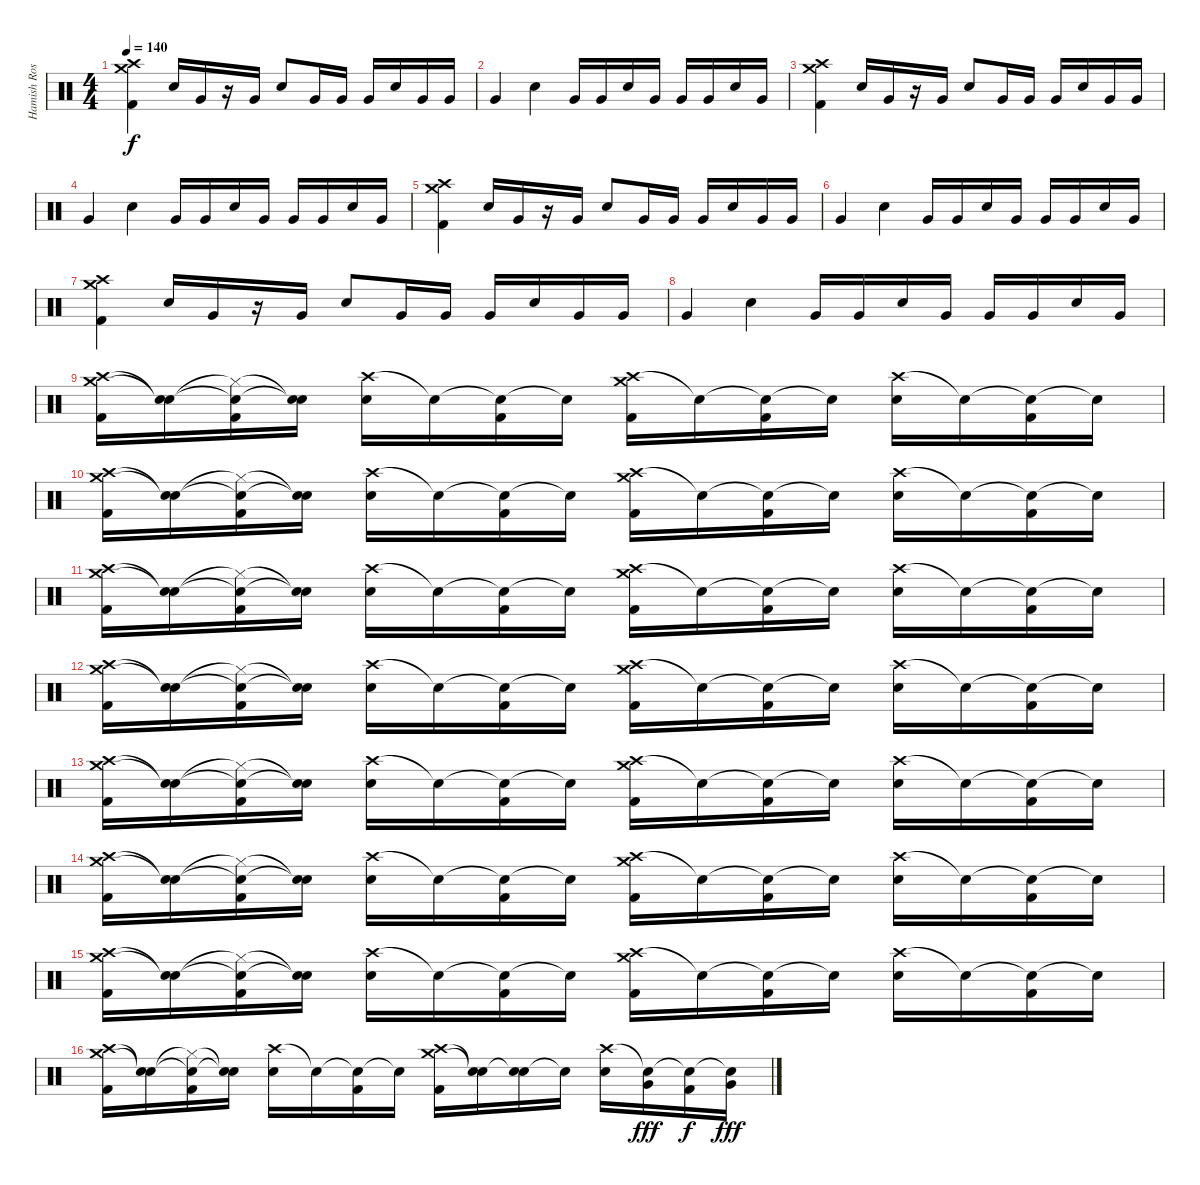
\track ("Hamish Rosser" "Hamish Ros") {instrument percussion}
\staff {score}
\articulation defaults
\ts (4 4)
\tempo 140
\clef neutral
\ks c
("Crash medium (hit)" "Crash high (hit)" "Kick (hit) 2").4{dy f} "Snare (hit) 2".16 "Very Low Tom (hit)".16 r.16 "Very Low Tom (hit)".16 "Snare (hit) 2".8 "Very Low Tom (hit)".16 "Very Low Tom (hit)".16 "Very Low Tom (hit)".16 "Snare (hit) 2".16 "Very Low Tom (hit)".16 "Very Low Tom (hit)".16 |
"Very Low Tom (hit)".4 "Snare (hit) 2".4 "Very Low Tom (hit)".16 "Very Low Tom (hit)".16 "Snare (hit) 2".16 "Very Low Tom (hit)".16 "Very Low Tom (hit)".16 "Very Low Tom (hit)".16 "Snare (hit) 2".16 "Very Low Tom (hit)".16 |
("Crash medium (hit)" "Crash high (hit)" "Kick (hit) 2").4 "Snare (hit) 2".16 "Very Low Tom (hit)".16 r.16 "Very Low Tom (hit)".16 "Snare (hit) 2".8 "Very Low Tom (hit)".16 "Very Low Tom (hit)".16 "Very Low Tom (hit)".16 "Snare (hit) 2".16 "Very Low Tom (hit)".16 "Very Low Tom (hit)".16 |
"Very Low Tom (hit)".4 "Snare (hit) 2".4 "Very Low Tom (hit)".16 "Very Low Tom (hit)".16 "Snare (hit) 2".16 "Very Low Tom (hit)".16 "Very Low Tom (hit)".16 "Very Low Tom (hit)".16 "Snare (hit) 2".16 "Very Low Tom (hit)".16 |
("Crash medium (hit)" "Crash high (hit)" "Kick (hit) 2").4 "Snare (hit) 2".16 "Very Low Tom (hit)".16 r.16 "Very Low Tom (hit)".16 "Snare (hit) 2".8 "Very Low Tom (hit)".16 "Very Low Tom (hit)".16 "Very Low Tom (hit)".16 "Snare (hit) 2".16 "Very Low Tom (hit)".16 "Very Low Tom (hit)".16 |
"Very Low Tom (hit)".4 "Snare (hit) 2".4 "Very Low Tom (hit)".16 "Very Low Tom (hit)".16 "Snare (hit) 2".16 "Very Low Tom (hit)".16 "Very Low Tom (hit)".16 "Very Low Tom (hit)".16 "Snare (hit) 2".16 "Very Low Tom (hit)".16 |
("Crash medium (hit)" "Crash high (hit)" "Kick (hit) 2").4 "Snare (hit) 2".16 "Very Low Tom (hit)".16 r.16 "Very Low Tom (hit)".16 "Snare (hit) 2".8 "Very Low Tom (hit)".16 "Very Low Tom (hit)".16 "Very Low Tom (hit)".16 "Snare (hit) 2".16 "Very Low Tom (hit)".16 "Very Low Tom (hit)".16 |
"Very Low Tom (hit)".4 "Snare (hit) 2".4 "Very Low Tom (hit)".16 "Very Low Tom (hit)".16 "Snare (hit) 2".16 "Very Low Tom (hit)".16 "Very Low Tom (hit)".16 "Very Low Tom (hit)".16 "Snare (hit) 2".16 "Very Low Tom (hit)".16 |
("Crash high (hit)" "Crash medium (hit)" "Kick (hit) 2").16 ("Snare (hit)"{t} "Snare (hit)"{t}).16 ("Snare (hit)"{t} "Hi-Hat (closed)"{t} "Kick (hit) 2").16 ("Snare (hit)"{t} "Snare (hit)"{t}).16 ("Crash high (hit)" "Electric Snare (hit)").16 "Snare (hit)"{t}.16 ("Snare (hit)"{t} "Kick (hit) 2").16 "Snare (hit)"{t}.16 ("Crash high (hit)" "Crash medium (hit)" "Kick (hit) 2").16 "Snare (hit)"{t}.16 ("Snare (hit)"{t} "Kick (hit) 2").16 "Snare (hit)"{t}.16 ("Crash high (hit)" "Electric Snare (hit)").16 "Snare (hit)"{t}.16 ("Snare (hit)"{t} "Kick (hit) 2").16 "Snare (hit)"{t}.16 |
("Crash high (hit)" "Crash medium (hit)" "Kick (hit) 2").16 ("Snare (hit)"{t} "Snare (hit)"{t}).16 ("Snare (hit)"{t} "Hi-Hat (closed)"{t} "Kick (hit) 2").16 ("Snare (hit)"{t} "Snare (hit)"{t}).16 ("Crash high (hit)" "Electric Snare (hit)").16 "Snare (hit)"{t}.16 ("Snare (hit)"{t} "Kick (hit) 2").16 "Snare (hit)"{t}.16 ("Crash high (hit)" "Crash medium (hit)" "Kick (hit) 2").16 "Snare (hit)"{t}.16 ("Snare (hit)"{t} "Kick (hit) 2").16 "Snare (hit)"{t}.16 ("Crash high (hit)" "Electric Snare (hit)").16 "Snare (hit)"{t}.16 ("Snare (hit)"{t} "Kick (hit) 2").16 "Snare (hit)"{t}.16 |
("Crash high (hit)" "Crash medium (hit)" "Kick (hit) 2").16 ("Snare (hit)"{t} "Snare (hit)"{t}).16 ("Snare (hit)"{t} "Hi-Hat (closed)"{t} "Kick (hit) 2").16 ("Snare (hit)"{t} "Snare (hit)"{t}).16 ("Crash high (hit)" "Electric Snare (hit)").16 "Snare (hit)"{t}.16 ("Snare (hit)"{t} "Kick (hit) 2").16 "Snare (hit)"{t}.16 ("Crash high (hit)" "Crash medium (hit)" "Kick (hit) 2").16 "Snare (hit)"{t}.16 ("Snare (hit)"{t} "Kick (hit) 2").16 "Snare (hit)"{t}.16 ("Crash high (hit)" "Electric Snare (hit)").16 "Snare (hit)"{t}.16 ("Snare (hit)"{t} "Kick (hit) 2").16 "Snare (hit)"{t}.16 |
("Crash high (hit)" "Crash medium (hit)" "Kick (hit) 2").16 ("Snare (hit)"{t} "Snare (hit)"{t}).16 ("Snare (hit)"{t} "Hi-Hat (closed)"{t} "Kick (hit) 2").16 ("Snare (hit)"{t} "Snare (hit)"{t}).16 ("Crash high (hit)" "Electric Snare (hit)").16 "Snare (hit)"{t}.16 ("Snare (hit)"{t} "Kick (hit) 2").16 "Snare (hit)"{t}.16 ("Crash high (hit)" "Crash medium (hit)" "Kick (hit) 2").16 "Snare (hit)"{t}.16 ("Snare (hit)"{t} "Kick (hit) 2").16 "Snare (hit)"{t}.16 ("Crash high (hit)" "Electric Snare (hit)").16 "Snare (hit)"{t}.16 ("Snare (hit)"{t} "Kick (hit) 2").16 "Snare (hit)"{t}.16 |
("Crash high (hit)" "Crash medium (hit)" "Kick (hit) 2").16 ("Snare (hit)"{t} "Snare (hit)"{t}).16 ("Snare (hit)"{t} "Hi-Hat (closed)"{t} "Kick (hit) 2").16 ("Snare (hit)"{t} "Snare (hit)"{t}).16 ("Crash high (hit)" "Electric Snare (hit)").16 "Snare (hit)"{t}.16 ("Snare (hit)"{t} "Kick (hit) 2").16 "Snare (hit)"{t}.16 ("Crash high (hit)" "Crash medium (hit)" "Kick (hit) 2").16 "Snare (hit)"{t}.16 ("Snare (hit)"{t} "Kick (hit) 2").16 "Snare (hit)"{t}.16 ("Crash high (hit)" "Electric Snare (hit)").16 "Snare (hit)"{t}.16 ("Snare (hit)"{t} "Kick (hit) 2").16 "Snare (hit)"{t}.16 |
("Crash high (hit)" "Crash medium (hit)" "Kick (hit) 2").16 ("Snare (hit)"{t} "Snare (hit)"{t}).16 ("Snare (hit)"{t} "Hi-Hat (closed)"{t} "Kick (hit) 2").16 ("Snare (hit)"{t} "Snare (hit)"{t}).16 ("Crash high (hit)" "Electric Snare (hit)").16 "Snare (hit)"{t}.16 ("Snare (hit)"{t} "Kick (hit) 2").16 "Snare (hit)"{t}.16 ("Crash high (hit)" "Crash medium (hit)" "Kick (hit) 2").16 "Snare (hit)"{t}.16 ("Snare (hit)"{t} "Kick (hit) 2").16 "Snare (hit)"{t}.16 ("Crash high (hit)" "Electric Snare (hit)").16 "Snare (hit)"{t}.16 ("Snare (hit)"{t} "Kick (hit) 2").16 "Snare (hit)"{t}.16 |
("Crash high (hit)" "Crash medium (hit)" "Kick (hit) 2").16 ("Snare (hit)"{t} "Snare (hit)"{t}).16 ("Snare (hit)"{t} "Hi-Hat (closed)"{t} "Kick (hit) 2").16 ("Snare (hit)"{t} "Snare (hit)"{t}).16 ("Crash high (hit)" "Electric Snare (hit)").16 "Snare (hit)"{t}.16 ("Snare (hit)"{t} "Kick (hit) 2").16 "Snare (hit)"{t}.16 ("Crash high (hit)" "Crash medium (hit)" "Kick (hit) 2").16 "Snare (hit)"{t}.16 ("Snare (hit)"{t} "Kick (hit) 2").16 "Snare (hit)"{t}.16 ("Crash high (hit)" "Electric Snare (hit)").16 "Snare (hit)"{t}.16 ("Snare (hit)"{t} "Kick (hit) 2").16 "Snare (hit)"{t}.16 |
("Crash high (hit)" "Crash medium (hit)" "Kick (hit) 2").16 ("Snare (hit)"{t} "Snare (hit)"{t}).16 ("Snare (hit)"{t} "Hi-Hat (closed)"{t} "Kick (hit) 2").16 ("Snare (hit)"{t} "Snare (hit)"{t}).16 ("Crash high (hit)" "Electric Snare (hit)").16 "Snare (hit)"{t}.16 ("Snare (hit)"{t} "Kick (hit) 2").16 "Snare (hit)"{t}.16 ("Crash high (hit)" "Crash medium (hit)" "Kick (hit) 2").16 ("Snare (hit)"{t} "Snare (hit)"{t}).16 ("Snare (hit)"{t} "Electric Snare (hit)").16 "Snare (hit)"{t}.16 ("Crash high (hit)" "Electric Snare (hit)").16 ("Snare (hit)"{t} "Very Low Tom (hit)").16{dy fff} ("Snare (hit)"{t} "Kick (hit) 2").16{dy f} ("Snare (hit)"{t} "Very Low Tom (hit)").16{dy fff}
